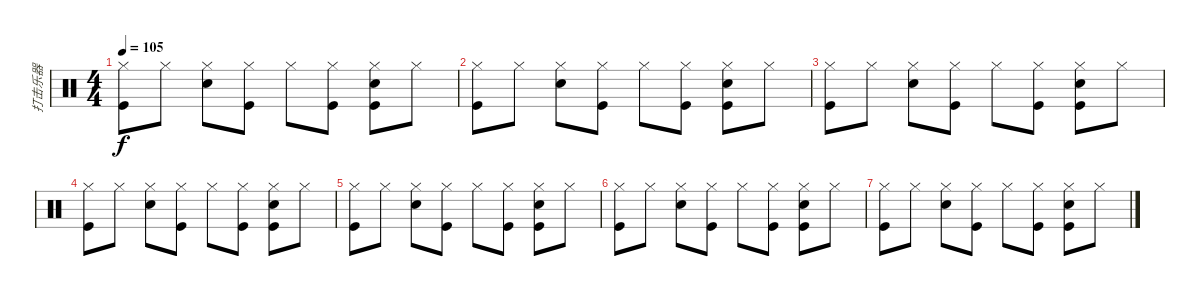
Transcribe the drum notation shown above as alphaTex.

\track ("打击乐器" "打击乐器") {instrument percussion}
\staff {score}
\articulation defaults
\ts (4 4)
\tempo 105
\clef neutral
\ks c
("Hi-Hat (closed)" "Kick (hit)").8{dy f} "Hi-Hat (closed)".8 ("Hi-Hat (closed)" "Snare (hit) 2").8 ("Hi-Hat (closed)" "Kick (hit)").8 "Hi-Hat (closed)".8 ("Hi-Hat (closed)" "Kick (hit)").8 ("Hi-Hat (closed)" "Snare (hit) 2" "Kick (hit)").8 "Hi-Hat (closed)".8 |
("Hi-Hat (closed)" "Kick (hit)").8 "Hi-Hat (closed)".8 ("Hi-Hat (closed)" "Snare (hit) 2").8 ("Hi-Hat (closed)" "Kick (hit)").8 "Hi-Hat (closed)".8 ("Hi-Hat (closed)" "Kick (hit)").8 ("Hi-Hat (closed)" "Snare (hit) 2" "Kick (hit)").8 "Hi-Hat (closed)".8 |
("Hi-Hat (closed)" "Kick (hit)").8 "Hi-Hat (closed)".8 ("Hi-Hat (closed)" "Snare (hit) 2").8 ("Hi-Hat (closed)" "Kick (hit)").8 "Hi-Hat (closed)".8 ("Hi-Hat (closed)" "Kick (hit)").8 ("Hi-Hat (closed)" "Snare (hit) 2" "Kick (hit)").8 "Hi-Hat (closed)".8 |
("Hi-Hat (closed)" "Kick (hit)").8 "Hi-Hat (closed)".8 ("Hi-Hat (closed)" "Snare (hit) 2").8 ("Hi-Hat (closed)" "Kick (hit)").8 "Hi-Hat (closed)".8 ("Hi-Hat (closed)" "Kick (hit)").8 ("Hi-Hat (closed)" "Snare (hit) 2" "Kick (hit)").8 "Hi-Hat (closed)".8 |
("Hi-Hat (closed)" "Kick (hit)").8 "Hi-Hat (closed)".8 ("Hi-Hat (closed)" "Snare (hit) 2").8 ("Hi-Hat (closed)" "Kick (hit)").8 "Hi-Hat (closed)".8 ("Hi-Hat (closed)" "Kick (hit)").8 ("Hi-Hat (closed)" "Snare (hit) 2" "Kick (hit)").8 "Hi-Hat (closed)".8 |
("Hi-Hat (closed)" "Kick (hit)").8 "Hi-Hat (closed)".8 ("Hi-Hat (closed)" "Snare (hit) 2").8 ("Hi-Hat (closed)" "Kick (hit)").8 "Hi-Hat (closed)".8 ("Hi-Hat (closed)" "Kick (hit)").8 ("Hi-Hat (closed)" "Snare (hit) 2" "Kick (hit)").8 "Hi-Hat (closed)".8 |
("Hi-Hat (closed)" "Kick (hit)").8 "Hi-Hat (closed)".8 ("Hi-Hat (closed)" "Snare (hit) 2").8 ("Hi-Hat (closed)" "Kick (hit)").8 "Hi-Hat (closed)".8 ("Hi-Hat (closed)" "Kick (hit)").8 ("Hi-Hat (closed)" "Snare (hit) 2" "Kick (hit)").8 "Hi-Hat (closed)".8
